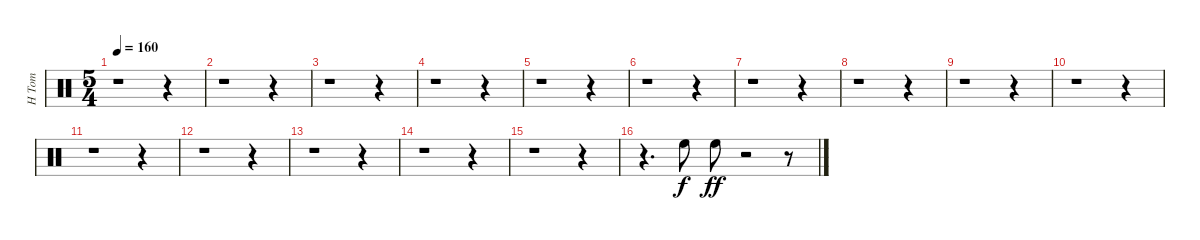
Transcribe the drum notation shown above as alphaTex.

\track ("H Tom" "H Tom") {instrument percussion}
\staff {score}
\articulation defaults
\ts (5 4)
\tempo 160
\clef neutral
\ks c
r.1{dy mf} r.4 |
r.1 r.4 |
r.1 r.4 |
r.1 r.4 |
r.1 r.4 |
r.1 r.4 |
r.1 r.4 |
r.1 r.4 |
r.1 r.4 |
r.1 r.4 |
r.1 r.4 |
r.1 r.4 |
r.1 r.4 |
r.1 r.4 |
r.1 r.4 |
r.4{d} "High Floor Tom (hit)".8{dy f} "High Floor Tom (hit)".8{dy ff} r.2 r.8
